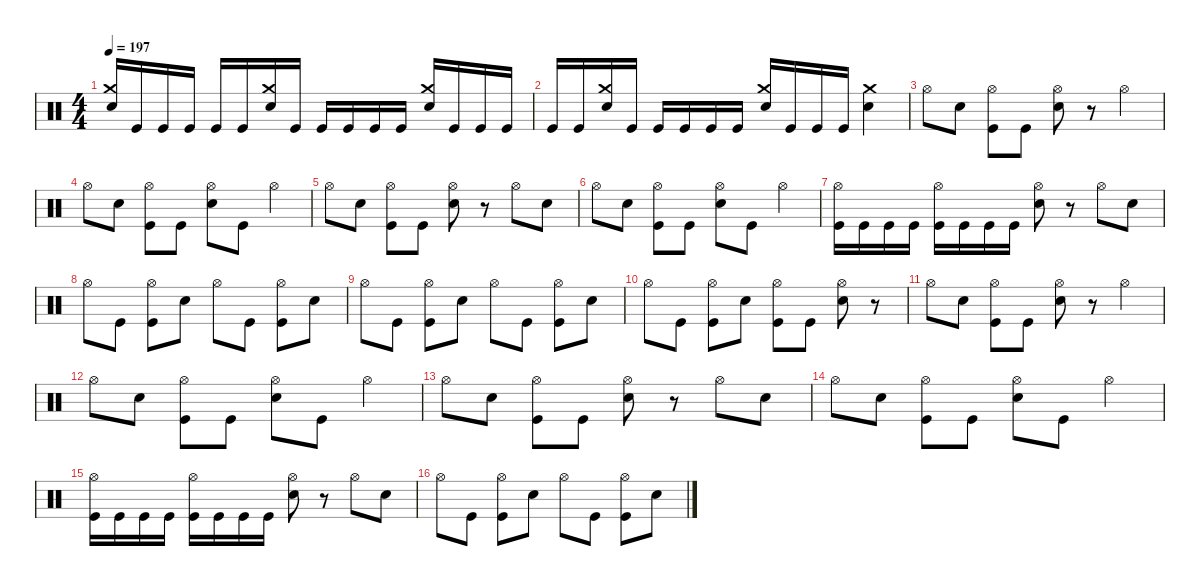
\defaultSystemsLayout 4
\hideDynamics
\bracketExtendMode nobrackets
\singleTrackTrackNamePolicy hidden
\multiTrackTrackNamePolicy hidden
\firstSystemTrackNameMode fullname
\firstSystemTrackNameOrientation horizontal
\otherSystemsTrackNameOrientation horizontal
\track ("Drums" "drm.") {defaultSystemsLayout 4 instrument percussion}
\staff {score}
\articulation defaults
\ts (4 4)
\tempo 197
\clef neutral
\ks c
("Crash medium (hit)" "Snare (hit) 2").16{dy f beam Up} "Kick (hit)".16{beam Up} "Kick (hit)".16{beam Up} "Kick (hit)".16{beam Up} "Kick (hit)".16{beam Up} "Kick (hit)".16{beam Up} ("Crash medium (hit)" "Snare (hit) 2").16{beam Up} "Kick (hit)".16{beam Up} "Kick (hit)".16{beam Up} "Kick (hit)".16{beam Up} "Kick (hit)".16{beam Up} "Kick (hit)".16{beam Up} ("Crash medium (hit)" "Snare (hit) 2").16{beam Up} "Kick (hit)".16{beam Up} "Kick (hit)".16{beam Up} "Kick (hit)".16{beam Up} |
"Kick (hit)".16{beam Up} "Kick (hit)".16{beam Up} ("Crash medium (hit)" "Snare (hit) 2").16{beam Up} "Kick (hit)".16{beam Up} "Kick (hit)".16{beam Up} "Kick (hit)".16{beam Up} "Kick (hit)".16{beam Up} "Kick (hit)".16{beam Up} ("Crash medium (hit)" "Snare (hit) 2").16{beam Up} "Kick (hit)".16{beam Up} "Kick (hit)".16{beam Up} "Kick (hit)".16{beam Up} ("Crash medium (hit)" "Snare (hit) 2").4{beam Down} |
"Hi-Hat (open)".8{dy mf beam Down} "Snare (hit) 2".8{dy f beam Down} ("Hi-Hat (open)" "Kick (hit)").8{dy mf beam Down} "Kick (hit)".8{dy f beam Down} ("Hi-Hat (open)" "Snare (hit) 2").8{dy mf beam Down} r.8{beam Down} "Hi-Hat (open)".4{beam Down} |
"Hi-Hat (open)".8{beam Down} "Snare (hit) 2".8{dy f beam Down} ("Hi-Hat (open)" "Kick (hit)").8{dy mf beam Down} "Kick (hit)".8{dy f beam Down} ("Hi-Hat (open)" "Snare (hit) 2").8{dy mf beam Down} "Kick (hit)".8{dy f beam Down} "Hi-Hat (open)".4{dy mf beam Down} |
"Hi-Hat (open)".8{beam Down} "Snare (hit) 2".8{dy f beam Down} ("Hi-Hat (open)" "Kick (hit)").8{dy mf beam Down} "Kick (hit)".8{dy f beam Down} ("Hi-Hat (open)" "Snare (hit) 2").8{dy mf beam Down} r.8{beam Down} "Hi-Hat (open)".8{beam Down} "Snare (hit) 2".8{dy f beam Down} |
"Hi-Hat (open)".8{dy mf beam Down} "Snare (hit) 2".8{dy f beam Down} ("Hi-Hat (open)" "Kick (hit)").8{dy mf beam Down} "Kick (hit)".8{dy f beam Down} ("Hi-Hat (open)" "Snare (hit) 2").8{dy mf beam Down} "Kick (hit)".8{dy f beam Down} "Hi-Hat (open)".4{dy mf beam Down} |
("Hi-Hat (open)" "Kick (hit)").16{beam Down} "Kick (hit)".16{dy f beam Down} "Kick (hit)".16{beam Down} "Kick (hit)".16{beam Down} ("Hi-Hat (open)" "Kick (hit)").16{dy mf beam Down} "Kick (hit)".16{dy f beam Down} "Kick (hit)".16{beam Down} "Kick (hit)".16{beam Down} ("Hi-Hat (open)" "Snare (hit) 2").8{dy mf beam Down} r.8{beam Down} "Hi-Hat (open)".8{beam Down} "Snare (hit) 2".8{dy f beam Down} |
"Hi-Hat (open)".8{dy mf beam Down} "Kick (hit)".8{dy f beam Down} ("Hi-Hat (open)" "Kick (hit)").8{dy mf beam Down} "Snare (hit) 2".8{dy f beam Down} "Hi-Hat (open)".8{dy mf beam Down} "Kick (hit)".8{dy f beam Down} ("Hi-Hat (open)" "Kick (hit)").8{dy mf beam Down} "Snare (hit) 2".8{dy f beam Down} |
"Hi-Hat (open)".8{dy mf beam Down} "Kick (hit)".8{dy f beam Down} ("Hi-Hat (open)" "Kick (hit)").8{dy mf beam Down} "Snare (hit) 2".8{dy f beam Down} "Hi-Hat (open)".8{dy mf beam Down} "Kick (hit)".8{dy f beam Down} ("Hi-Hat (open)" "Kick (hit)").8{dy mf beam Down} "Snare (hit) 2".8{dy f beam Down} |
"Hi-Hat (open)".8{dy mf beam Down} "Kick (hit)".8{dy f beam Down} ("Hi-Hat (open)" "Kick (hit)").8{dy mf beam Down} "Snare (hit) 2".8{dy f beam Down} ("Hi-Hat (open)" "Kick (hit)").8{dy mf beam Down} "Kick (hit)".8{dy f beam Down} ("Hi-Hat (open)" "Snare (hit) 2").8{dy mf beam Down} r.8{beam Down} |
"Hi-Hat (open)".8{beam Down} "Snare (hit) 2".8{dy f beam Down} ("Hi-Hat (open)" "Kick (hit)").8{dy mf beam Down} "Kick (hit)".8{dy f beam Down} ("Hi-Hat (open)" "Snare (hit) 2").8{dy mf beam Down} r.8{beam Down} "Hi-Hat (open)".4{beam Down} |
"Hi-Hat (open)".8{beam Down} "Snare (hit) 2".8{dy f beam Down} ("Hi-Hat (open)" "Kick (hit)").8{dy mf beam Down} "Kick (hit)".8{dy f beam Down} ("Hi-Hat (open)" "Snare (hit) 2").8{dy mf beam Down} "Kick (hit)".8{dy f beam Down} "Hi-Hat (open)".4{dy mf beam Down} |
"Hi-Hat (open)".8{beam Down} "Snare (hit) 2".8{dy f beam Down} ("Hi-Hat (open)" "Kick (hit)").8{dy mf beam Down} "Kick (hit)".8{dy f beam Down} ("Hi-Hat (open)" "Snare (hit) 2").8{dy mf beam Down} r.8{beam Down} "Hi-Hat (open)".8{beam Down} "Snare (hit) 2".8{dy f beam Down} |
"Hi-Hat (open)".8{dy mf beam Down} "Snare (hit) 2".8{dy f beam Down} ("Hi-Hat (open)" "Kick (hit)").8{dy mf beam Down} "Kick (hit)".8{dy f beam Down} ("Hi-Hat (open)" "Snare (hit) 2").8{dy mf beam Down} "Kick (hit)".8{dy f beam Down} "Hi-Hat (open)".4{dy mf beam Down} |
("Hi-Hat (open)" "Kick (hit)").16{beam Down} "Kick (hit)".16{dy f beam Down} "Kick (hit)".16{beam Down} "Kick (hit)".16{beam Down} ("Hi-Hat (open)" "Kick (hit)").16{dy mf beam Down} "Kick (hit)".16{dy f beam Down} "Kick (hit)".16{beam Down} "Kick (hit)".16{beam Down} ("Hi-Hat (open)" "Snare (hit) 2").8{dy mf beam Down} r.8{beam Down} "Hi-Hat (open)".8{beam Down} "Snare (hit) 2".8{dy f beam Down} |
"Hi-Hat (open)".8{dy mf beam Down} "Kick (hit)".8{dy f beam Down} ("Hi-Hat (open)" "Kick (hit)").8{dy mf beam Down} "Snare (hit) 2".8{dy f beam Down} "Hi-Hat (open)".8{dy mf beam Down} "Kick (hit)".8{dy f beam Down} ("Hi-Hat (open)" "Kick (hit)").8{dy mf beam Down} "Snare (hit) 2".8{dy f beam Down}
